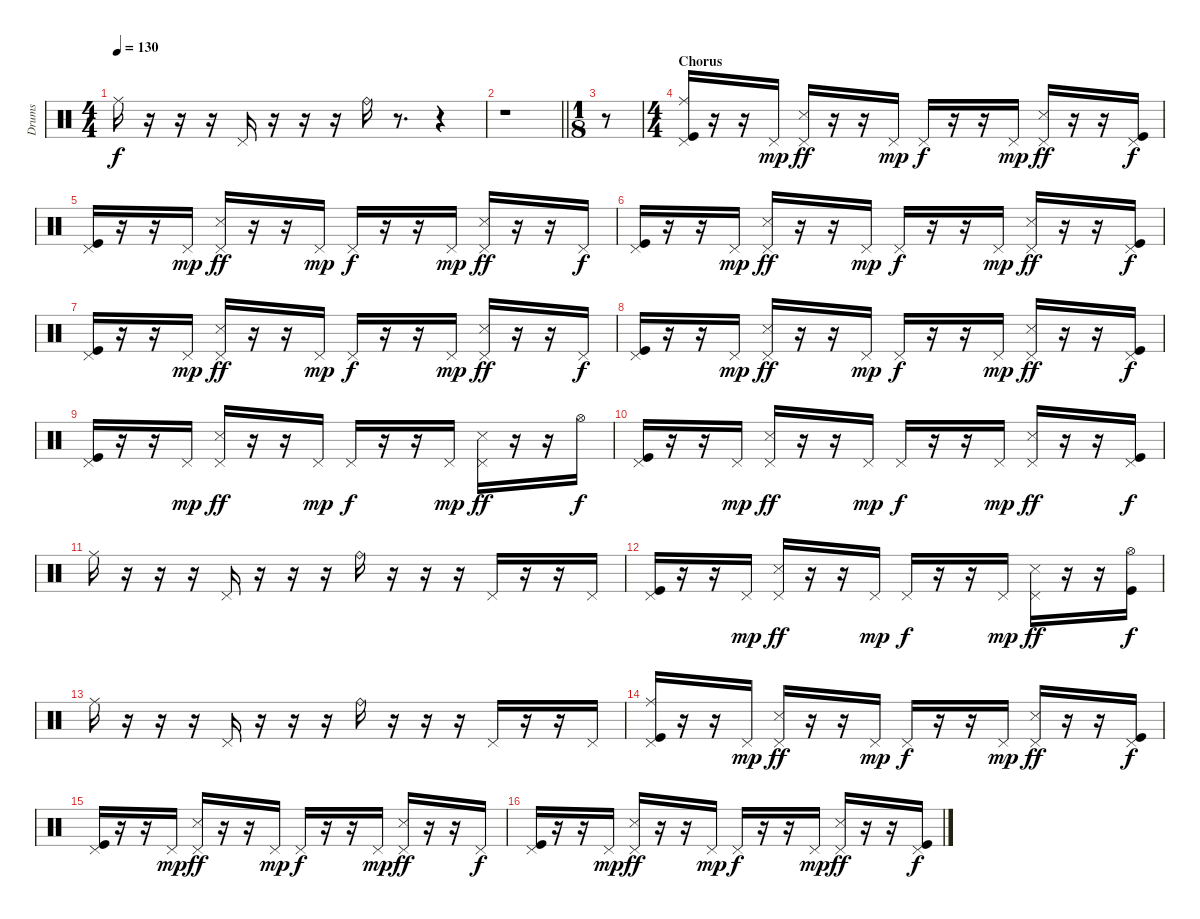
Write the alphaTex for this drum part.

\track ("Drums" "Drums") {instrument percussion}
\staff {score}
\articulation defaults
\ts (4 4)
\tempo 130
\clef neutral
\ks c "Ride (middle)".16{dy f}
r.16 r.16 r.16 "Pedal Hi-Hat (hit)".16 r.16 r.16 r.16 "Ride (bell)".16 r.8{d} r.4 |
\barLineRight lightlight
r.1 |
\ts (1 8)
r.8 |
\ts (4 4)
\section ("" "Chorus")
("Pedal Hi-Hat (hit)" "Ride (middle)" "Kick (hit)").16 r.16 r.16 "Pedal Hi-Hat (hit)".16{dy mp} ("Pedal Hi-Hat (hit)" "Snare (side stick) 3").16{dy ff} r.16 r.16 "Pedal Hi-Hat (hit)".16{dy mp} "Pedal Hi-Hat (hit)".16{dy f} r.16 r.16 "Pedal Hi-Hat (hit)".16{dy mp} ("Pedal Hi-Hat (hit)" "Snare (side stick) 3").16{dy ff} r.16 r.16 ("Pedal Hi-Hat (hit)" "Kick (hit)").16{dy f} |
("Pedal Hi-Hat (hit)" "Kick (hit)").16 r.16 r.16 "Pedal Hi-Hat (hit)".16{dy mp} ("Pedal Hi-Hat (hit)" "Snare (side stick) 3").16{dy ff} r.16 r.16 "Pedal Hi-Hat (hit)".16{dy mp} "Pedal Hi-Hat (hit)".16{dy f} r.16 r.16 "Pedal Hi-Hat (hit)".16{dy mp} ("Pedal Hi-Hat (hit)" "Snare (side stick) 3").16{dy ff} r.16 r.16 "Pedal Hi-Hat (hit)".16{dy f} |
("Pedal Hi-Hat (hit)" "Kick (hit)").16 r.16 r.16 "Pedal Hi-Hat (hit)".16{dy mp} ("Pedal Hi-Hat (hit)" "Snare (side stick) 3").16{dy ff} r.16 r.16 "Pedal Hi-Hat (hit)".16{dy mp} "Pedal Hi-Hat (hit)".16{dy f} r.16 r.16 "Pedal Hi-Hat (hit)".16{dy mp} ("Pedal Hi-Hat (hit)" "Snare (side stick) 3").16{dy ff} r.16 r.16 ("Pedal Hi-Hat (hit)" "Kick (hit)").16{dy f} |
("Pedal Hi-Hat (hit)" "Kick (hit)").16 r.16 r.16 "Pedal Hi-Hat (hit)".16{dy mp} ("Pedal Hi-Hat (hit)" "Snare (side stick) 3").16{dy ff} r.16 r.16 "Pedal Hi-Hat (hit)".16{dy mp} "Pedal Hi-Hat (hit)".16{dy f} r.16 r.16 "Pedal Hi-Hat (hit)".16{dy mp} ("Pedal Hi-Hat (hit)" "Snare (side stick) 3").16{dy ff} r.16 r.16 "Pedal Hi-Hat (hit)".16{dy f} |
("Pedal Hi-Hat (hit)" "Kick (hit)").16 r.16 r.16 "Pedal Hi-Hat (hit)".16{dy mp} ("Pedal Hi-Hat (hit)" "Snare (side stick) 3").16{dy ff} r.16 r.16 "Pedal Hi-Hat (hit)".16{dy mp} "Pedal Hi-Hat (hit)".16{dy f} r.16 r.16 "Pedal Hi-Hat (hit)".16{dy mp} ("Pedal Hi-Hat (hit)" "Snare (side stick) 3").16{dy ff} r.16 r.16 ("Pedal Hi-Hat (hit)" "Kick (hit)").16{dy f} |
("Pedal Hi-Hat (hit)" "Kick (hit)").16 r.16 r.16 "Pedal Hi-Hat (hit)".16{dy mp} ("Pedal Hi-Hat (hit)" "Snare (side stick) 3").16{dy ff} r.16 r.16 "Pedal Hi-Hat (hit)".16{dy mp} "Pedal Hi-Hat (hit)".16{dy f} r.16 r.16 "Pedal Hi-Hat (hit)".16{dy mp} ("Pedal Hi-Hat (hit)" "Snare (side stick) 3").16{dy ff} r.16 r.16 "Hi-Hat (open)".16{dy f} |
("Pedal Hi-Hat (hit)" "Kick (hit)").16 r.16 r.16 "Pedal Hi-Hat (hit)".16{dy mp} ("Pedal Hi-Hat (hit)" "Snare (side stick) 3").16{dy ff} r.16 r.16 "Pedal Hi-Hat (hit)".16{dy mp} "Pedal Hi-Hat (hit)".16{dy f} r.16 r.16 "Pedal Hi-Hat (hit)".16{dy mp} ("Pedal Hi-Hat (hit)" "Snare (side stick) 3").16{dy ff} r.16 r.16 ("Pedal Hi-Hat (hit)" "Kick (hit)").16{dy f} |
"Ride (middle)".16 r.16 r.16 r.16 "Pedal Hi-Hat (hit)".16 r.16 r.16 r.16 "Ride (bell)".16 r.16 r.16 r.16 "Pedal Hi-Hat (hit)".16 r.16 r.16 "Pedal Hi-Hat (hit)".16 |
("Pedal Hi-Hat (hit)" "Kick (hit)").16 r.16 r.16 "Pedal Hi-Hat (hit)".16{dy mp} ("Pedal Hi-Hat (hit)" "Snare (side stick) 3").16{dy ff} r.16 r.16 "Pedal Hi-Hat (hit)".16{dy mp} "Pedal Hi-Hat (hit)".16{dy f} r.16 r.16 "Pedal Hi-Hat (hit)".16{dy mp} ("Pedal Hi-Hat (hit)" "Snare (side stick) 3").16{dy ff} r.16 r.16 ("Hi-Hat (open)" "Kick (hit)").16{dy f} |
"Ride (middle)".16 r.16 r.16 r.16 "Pedal Hi-Hat (hit)".16 r.16 r.16 r.16 "Ride (bell)".16 r.16 r.16 r.16 "Pedal Hi-Hat (hit)".16 r.16 r.16 "Pedal Hi-Hat (hit)".16 |
("Pedal Hi-Hat (hit)" "Ride (middle)" "Kick (hit)").16 r.16 r.16 "Pedal Hi-Hat (hit)".16{dy mp} ("Pedal Hi-Hat (hit)" "Snare (side stick) 3").16{dy ff} r.16 r.16 "Pedal Hi-Hat (hit)".16{dy mp} "Pedal Hi-Hat (hit)".16{dy f} r.16 r.16 "Pedal Hi-Hat (hit)".16{dy mp} ("Pedal Hi-Hat (hit)" "Snare (side stick) 3").16{dy ff} r.16 r.16 ("Pedal Hi-Hat (hit)" "Kick (hit)").16{dy f} |
("Pedal Hi-Hat (hit)" "Kick (hit)").16 r.16 r.16 "Pedal Hi-Hat (hit)".16{dy mp} ("Pedal Hi-Hat (hit)" "Snare (side stick) 3").16{dy ff} r.16 r.16 "Pedal Hi-Hat (hit)".16{dy mp} "Pedal Hi-Hat (hit)".16{dy f} r.16 r.16 "Pedal Hi-Hat (hit)".16{dy mp} ("Pedal Hi-Hat (hit)" "Snare (side stick) 3").16{dy ff} r.16 r.16 "Pedal Hi-Hat (hit)".16{dy f} |
("Pedal Hi-Hat (hit)" "Kick (hit)").16 r.16 r.16 "Pedal Hi-Hat (hit)".16{dy mp} ("Pedal Hi-Hat (hit)" "Snare (side stick) 3").16{dy ff} r.16 r.16 "Pedal Hi-Hat (hit)".16{dy mp} "Pedal Hi-Hat (hit)".16{dy f} r.16 r.16 "Pedal Hi-Hat (hit)".16{dy mp} ("Pedal Hi-Hat (hit)" "Snare (side stick) 3").16{dy ff} r.16 r.16 ("Pedal Hi-Hat (hit)" "Kick (hit)").16{dy f}
